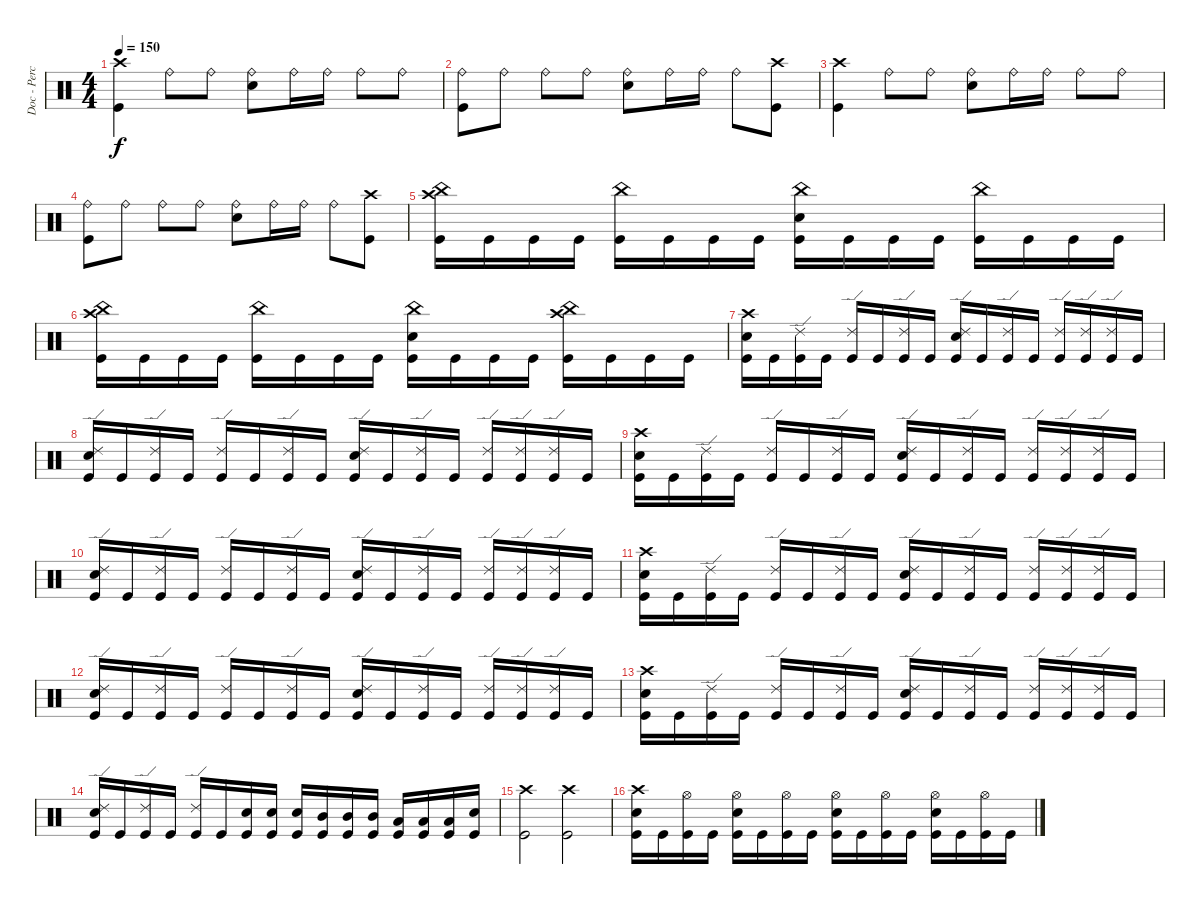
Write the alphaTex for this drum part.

\track ("Doc - Percussion" "Doc - Perc") {instrument percussion}
\staff {score}
\articulation defaults
\ts (4 4)
\tempo 150
\clef neutral
\ks c
("Crash high (hit)" "Kick (hit)").4{dy f} "Ride (bell)".8 "Ride (bell)".8 ("Ride (bell)" "Electric Snare (hit)").8 "Ride (bell)".16 "Ride (bell)".16 "Ride (bell)".8 "Ride (bell)".8 |
("Ride (bell)" "Kick (hit)").8 "Ride (bell)".8 "Ride (bell)".8 "Ride (bell)".8 ("Ride (bell)" "Electric Snare (hit)").8 "Ride (bell)".16 "Ride (bell)".16 "Ride (bell)".8 ("Crash high (hit)" "Kick (hit)").8 |
("Crash high (hit)" "Kick (hit)").4 "Ride (bell)".8 "Ride (bell)".8 ("Ride (bell)" "Electric Snare (hit)").8 "Ride (bell)".16 "Ride (bell)".16 "Ride (bell)".8 "Ride (bell)".8 |
("Ride (bell)" "Kick (hit)").8 "Ride (bell)".8 "Ride (bell)".8 "Ride (bell)".8 ("Ride (bell)" "Electric Snare (hit)").8 "Ride (bell)".16 "Ride (bell)".16 "Ride (bell)".8 ("Crash high (hit)" "Kick (hit)").8 |
("Crash high (hit)" "China (hit)" "Kick (hit)").16 "Kick (hit)".16 "Kick (hit)".16 "Kick (hit)".16 ("China (hit)" "Kick (hit)").16 "Kick (hit)".16 "Kick (hit)".16 "Kick (hit)".16 ("China (hit)" "Electric Snare (hit)" "Kick (hit)").16 "Kick (hit)".16 "Kick (hit)".16 "Kick (hit)".16 ("China (hit)" "Kick (hit)").16 "Kick (hit)".16 "Kick (hit)".16 "Kick (hit)".16 |
("Crash high (hit)" "China (hit)" "Kick (hit)").16 "Kick (hit)".16 "Kick (hit)".16 "Kick (hit)".16 ("China (hit)" "Kick (hit)").16 "Kick (hit)".16 "Kick (hit)".16 "Kick (hit)".16 ("China (hit)" "Electric Snare (hit)" "Kick (hit)").16 "Kick (hit)".16 "Kick (hit)".16 "Kick (hit)".16 ("Crash high (hit)" "China (hit)" "Kick (hit)").16 "Kick (hit)".16 "Kick (hit)".16 "Kick (hit)".16 |
("Crash high (hit)" "Electric Snare (hit)" "Kick (hit)").16 "Kick (hit)".16 ("Ride (edge) 2" "Kick (hit)").16 "Kick (hit)".16 ("Ride (edge) 2" "Kick (hit)").16 "Kick (hit)".16 ("Ride (edge) 2" "Kick (hit)").16 "Kick (hit)".16 ("Ride (edge) 2" "Electric Snare (hit)" "Kick (hit)").16 "Kick (hit)".16 ("Ride (edge) 2" "Kick (hit)").16 "Kick (hit)".16 ("Ride (edge) 2" "Kick (hit)").16 ("Ride (edge) 2" "Kick (hit)").16 ("Ride (edge) 2" "Kick (hit)").16 "Kick (hit)".16 |
("Ride (edge) 2" "Electric Snare (hit)" "Kick (hit)").16 "Kick (hit)".16 ("Ride (edge) 2" "Kick (hit)").16 "Kick (hit)".16 ("Ride (edge) 2" "Kick (hit)").16 "Kick (hit)".16 ("Ride (edge) 2" "Kick (hit)").16 "Kick (hit)".16 ("Ride (edge) 2" "Electric Snare (hit)" "Kick (hit)").16 "Kick (hit)".16 ("Ride (edge) 2" "Kick (hit)").16 "Kick (hit)".16 ("Ride (edge) 2" "Kick (hit)").16 ("Ride (edge) 2" "Kick (hit)").16 ("Ride (edge) 2" "Kick (hit)").16 "Kick (hit)".16 |
("Crash high (hit)" "Electric Snare (hit)" "Kick (hit)").16 "Kick (hit)".16 ("Ride (edge) 2" "Kick (hit)").16 "Kick (hit)".16 ("Ride (edge) 2" "Kick (hit)").16 "Kick (hit)".16 ("Ride (edge) 2" "Kick (hit)").16 "Kick (hit)".16 ("Ride (edge) 2" "Electric Snare (hit)" "Kick (hit)").16 "Kick (hit)".16 ("Ride (edge) 2" "Kick (hit)").16 "Kick (hit)".16 ("Ride (edge) 2" "Kick (hit)").16 ("Ride (edge) 2" "Kick (hit)").16 ("Ride (edge) 2" "Kick (hit)").16 "Kick (hit)".16 |
("Ride (edge) 2" "Electric Snare (hit)" "Kick (hit)").16 "Kick (hit)".16 ("Ride (edge) 2" "Kick (hit)").16 "Kick (hit)".16 ("Ride (edge) 2" "Kick (hit)").16 "Kick (hit)".16 ("Ride (edge) 2" "Kick (hit)").16 "Kick (hit)".16 ("Ride (edge) 2" "Electric Snare (hit)" "Kick (hit)").16 "Kick (hit)".16 ("Ride (edge) 2" "Kick (hit)").16 "Kick (hit)".16 ("Ride (edge) 2" "Kick (hit)").16 ("Ride (edge) 2" "Kick (hit)").16 ("Ride (edge) 2" "Kick (hit)").16 "Kick (hit)".16 |
("Crash high (hit)" "Electric Snare (hit)" "Kick (hit)").16 "Kick (hit)".16 ("Ride (edge) 2" "Kick (hit)").16 "Kick (hit)".16 ("Ride (edge) 2" "Kick (hit)").16 "Kick (hit)".16 ("Ride (edge) 2" "Kick (hit)").16 "Kick (hit)".16 ("Ride (edge) 2" "Electric Snare (hit)" "Kick (hit)").16 "Kick (hit)".16 ("Ride (edge) 2" "Kick (hit)").16 "Kick (hit)".16 ("Ride (edge) 2" "Kick (hit)").16 ("Ride (edge) 2" "Kick (hit)").16 ("Ride (edge) 2" "Kick (hit)").16 "Kick (hit)".16 |
("Ride (edge) 2" "Electric Snare (hit)" "Kick (hit)").16 "Kick (hit)".16 ("Ride (edge) 2" "Kick (hit)").16 "Kick (hit)".16 ("Ride (edge) 2" "Kick (hit)").16 "Kick (hit)".16 ("Ride (edge) 2" "Kick (hit)").16 "Kick (hit)".16 ("Ride (edge) 2" "Electric Snare (hit)" "Kick (hit)").16 "Kick (hit)".16 ("Ride (edge) 2" "Kick (hit)").16 "Kick (hit)".16 ("Ride (edge) 2" "Kick (hit)").16 ("Ride (edge) 2" "Kick (hit)").16 ("Ride (edge) 2" "Kick (hit)").16 "Kick (hit)".16 |
("Crash high (hit)" "Electric Snare (hit)" "Kick (hit)").16 "Kick (hit)".16 ("Ride (edge) 2" "Kick (hit)").16 "Kick (hit)".16 ("Ride (edge) 2" "Kick (hit)").16 "Kick (hit)".16 ("Ride (edge) 2" "Kick (hit)").16 "Kick (hit)".16 ("Ride (edge) 2" "Electric Snare (hit)" "Kick (hit)").16 "Kick (hit)".16 ("Ride (edge) 2" "Kick (hit)").16 "Kick (hit)".16 ("Ride (edge) 2" "Kick (hit)").16 ("Ride (edge) 2" "Kick (hit)").16 ("Ride (edge) 2" "Kick (hit)").16 "Kick (hit)".16 |
("Ride (edge) 2" "Electric Snare (hit)" "Kick (hit)").16 "Kick (hit)".16 ("Ride (edge) 2" "Kick (hit)").16 "Kick (hit)".16 ("Ride (edge) 2" "Kick (hit)").16 "Kick (hit)".16 ("Electric Snare (hit)" "Kick (hit)").16 ("Electric Snare (hit)" "Kick (hit)").16 ("Electric Snare (hit)" "Kick (hit)").16 ("Mid Tom (hit)" "Kick (hit)").16 ("Mid Tom (hit)" "Kick (hit)").16 ("Mid Tom (hit)" "Kick (hit)").16 ("Low Tom (hit)" "Kick (hit)").16 ("Low Tom (hit)" "Kick (hit)").16 ("Low Tom (hit)" "Kick (hit)").16 ("Electric Snare (hit)" "Kick (hit)").16 |
("Crash high (hit)" "Kick (hit)").2 ("Crash high (hit)" "Kick (hit)").2 |
("Crash high (hit)" "Electric Snare (hit)" "Kick (hit)").16 "Kick (hit)".16 ("Hi-Hat (open)" "Kick (hit)").16 "Kick (hit)".16 ("Hi-Hat (open)" "Electric Snare (hit)" "Kick (hit)").16 "Kick (hit)".16 ("Hi-Hat (open)" "Kick (hit)").16 "Kick (hit)".16 ("Hi-Hat (open)" "Electric Snare (hit)" "Kick (hit)").16 "Kick (hit)".16 ("Hi-Hat (open)" "Kick (hit)").16 "Kick (hit)".16 ("Hi-Hat (open)" "Electric Snare (hit)" "Kick (hit)").16 "Kick (hit)".16 ("Hi-Hat (open)" "Kick (hit)").16 "Kick (hit)".16
